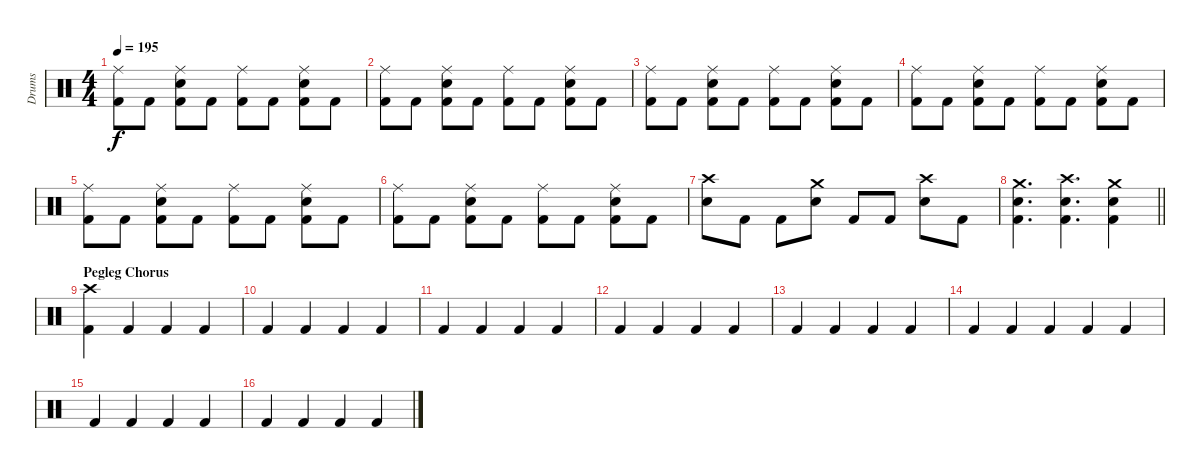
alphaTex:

\track ("Drums" "Drums") {instrument percussion}
\staff {score}
\articulation defaults
\ts (4 4)
\tempo 195
\clef neutral
\ks c
("Ride (middle)" "Kick (hit) 2").8{dy f} "Kick (hit) 2".8 ("Ride (middle)" "Snare (hit) 2" "Kick (hit) 2").8 "Kick (hit) 2".8 ("Ride (middle)" "Kick (hit) 2").8 "Kick (hit) 2".8 ("Ride (middle)" "Snare (hit) 2" "Kick (hit) 2").8 "Kick (hit) 2".8 |
("Ride (middle)" "Kick (hit) 2").8 "Kick (hit) 2".8 ("Ride (middle)" "Snare (hit) 2" "Kick (hit) 2").8 "Kick (hit) 2".8 ("Ride (middle)" "Kick (hit) 2").8 "Kick (hit) 2".8 ("Ride (middle)" "Snare (hit) 2" "Kick (hit) 2").8 "Kick (hit) 2".8 |
("Ride (middle)" "Kick (hit) 2").8 "Kick (hit) 2".8 ("Ride (middle)" "Snare (hit) 2" "Kick (hit) 2").8 "Kick (hit) 2".8 ("Ride (middle)" "Kick (hit) 2").8 "Kick (hit) 2".8 ("Ride (middle)" "Snare (hit) 2" "Kick (hit) 2").8 "Kick (hit) 2".8 |
("Ride (middle)" "Kick (hit) 2").8 "Kick (hit) 2".8 ("Ride (middle)" "Snare (hit) 2" "Kick (hit) 2").8 "Kick (hit) 2".8 ("Ride (middle)" "Kick (hit) 2").8 "Kick (hit) 2".8 ("Ride (middle)" "Snare (hit) 2" "Kick (hit) 2").8 "Kick (hit) 2".8 |
("Ride (middle)" "Kick (hit) 2").8 "Kick (hit) 2".8 ("Ride (middle)" "Snare (hit) 2" "Kick (hit) 2").8 "Kick (hit) 2".8 ("Ride (middle)" "Kick (hit) 2").8 "Kick (hit) 2".8 ("Ride (middle)" "Snare (hit) 2" "Kick (hit) 2").8 "Kick (hit) 2".8 |
("Ride (middle)" "Kick (hit) 2").8 "Kick (hit) 2".8 ("Ride (middle)" "Snare (hit) 2" "Kick (hit) 2").8 "Kick (hit) 2".8 ("Ride (middle)" "Kick (hit) 2").8 "Kick (hit) 2".8 ("Ride (middle)" "Snare (hit) 2" "Kick (hit) 2").8 "Kick (hit) 2".8 |
("Crash high (hit)" "Snare (hit) 2").8 "Kick (hit) 2".8 "Kick (hit) 2".8 ("Crash medium (hit)" "Snare (hit) 2").8 "Kick (hit) 2".8 "Kick (hit) 2".8 ("Crash high (hit)" "Snare (hit) 2").8 "Kick (hit) 2".8 |
\barLineRight lightlight
("Crash medium (hit)" "Snare (hit) 2" "Kick (hit) 2").4{d} ("Crash high (hit)" "Snare (hit) 2" "Kick (hit) 2").4{d} ("Crash medium (hit)" "Snare (hit) 2" "Kick (hit) 2").4 |
\section ("" "Pegleg Chorus")
("Crash high (hit)" "Kick (hit) 2").4 "Kick (hit) 2".4 "Kick (hit) 2".4 "Kick (hit) 2".4 |
"Kick (hit) 2".4 "Kick (hit) 2".4 "Kick (hit) 2".4 "Kick (hit) 2".4 |
"Kick (hit) 2".4 "Kick (hit) 2".4 "Kick (hit) 2".4 "Kick (hit) 2".4 |
"Kick (hit) 2".4 "Kick (hit) 2".4 "Kick (hit) 2".4 "Kick (hit) 2".4 |
"Kick (hit) 2".4 "Kick (hit) 2".4 "Kick (hit) 2".4 "Kick (hit) 2".4 |
"Kick (hit) 2".4 "Kick (hit) 2".4 "Kick (hit) 2".4 "Kick (hit) 2".4 "Kick (hit) 2".4 |
"Kick (hit) 2".4 "Kick (hit) 2".4 "Kick (hit) 2".4 "Kick (hit) 2".4 |
"Kick (hit) 2".4 "Kick (hit) 2".4 "Kick (hit) 2".4 "Kick (hit) 2".4
